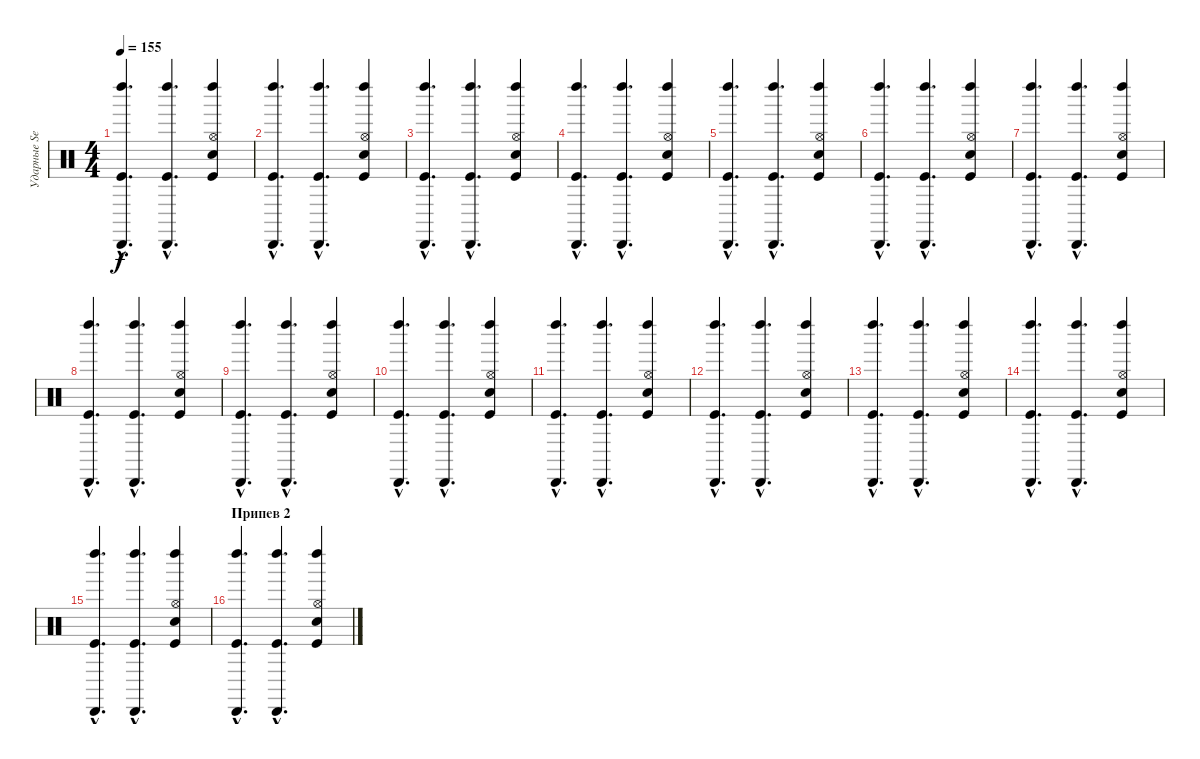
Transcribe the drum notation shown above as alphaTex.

\track ("Ударные Serge Petrone" "Ударные Se") {instrument percussion}
\staff {score}
\articulation defaults
\ts (4 4)
\tempo 155
\clef neutral
\ks c
("Cabasa (hit)"{hac} "Kick (hit)"{hac} "Left Maraca (hit)"{hac}).4{d dy f} ("Cabasa (hit)"{hac} "Kick (hit)"{hac} "Left Maraca (hit)"{hac}).4{d} ("Hi-Hat (open)" "Hand Clap (hit)" "Kick (hit)" "Left Maraca (hit)").4 |
("Cabasa (hit)"{hac} "Kick (hit)"{hac} "Left Maraca (hit)"{hac}).4{d} ("Cabasa (hit)"{hac} "Kick (hit)"{hac} "Left Maraca (hit)"{hac}).4{d} ("Hi-Hat (open)" "Hand Clap (hit)" "Kick (hit)" "Left Maraca (hit)").4 |
("Cabasa (hit)"{hac} "Kick (hit)"{hac} "Left Maraca (hit)"{hac}).4{d} ("Cabasa (hit)"{hac} "Kick (hit)"{hac} "Left Maraca (hit)"{hac}).4{d} ("Hi-Hat (open)" "Hand Clap (hit)" "Kick (hit)" "Left Maraca (hit)").4 |
("Cabasa (hit)"{hac} "Kick (hit)"{hac} "Left Maraca (hit)"{hac}).4{d} ("Cabasa (hit)"{hac} "Kick (hit)"{hac} "Left Maraca (hit)"{hac}).4{d} ("Hi-Hat (open)" "Hand Clap (hit)" "Kick (hit)" "Left Maraca (hit)").4 |
("Cabasa (hit)"{hac} "Kick (hit)"{hac} "Left Maraca (hit)"{hac}).4{d} ("Cabasa (hit)"{hac} "Kick (hit)"{hac} "Left Maraca (hit)"{hac}).4{d} ("Hi-Hat (open)" "Hand Clap (hit)" "Kick (hit)" "Left Maraca (hit)").4 |
("Cabasa (hit)"{hac} "Kick (hit)"{hac} "Left Maraca (hit)"{hac}).4{d} ("Cabasa (hit)"{hac} "Kick (hit)"{hac} "Left Maraca (hit)"{hac}).4{d} ("Hi-Hat (open)" "Hand Clap (hit)" "Kick (hit)" "Left Maraca (hit)").4 |
("Cabasa (hit)"{hac} "Kick (hit)"{hac} "Left Maraca (hit)"{hac}).4{d} ("Cabasa (hit)"{hac} "Kick (hit)"{hac} "Left Maraca (hit)"{hac}).4{d} ("Hi-Hat (open)" "Hand Clap (hit)" "Kick (hit)" "Left Maraca (hit)").4 |
("Cabasa (hit)"{hac} "Kick (hit)"{hac} "Left Maraca (hit)"{hac}).4{d} ("Cabasa (hit)"{hac} "Kick (hit)"{hac} "Left Maraca (hit)"{hac}).4{d} ("Hi-Hat (open)" "Hand Clap (hit)" "Kick (hit)" "Left Maraca (hit)").4 |
("Cabasa (hit)"{hac} "Kick (hit)"{hac} "Left Maraca (hit)"{hac}).4{d} ("Cabasa (hit)"{hac} "Kick (hit)"{hac} "Left Maraca (hit)"{hac}).4{d} ("Hi-Hat (open)" "Hand Clap (hit)" "Kick (hit)" "Left Maraca (hit)").4 |
("Cabasa (hit)"{hac} "Kick (hit)"{hac} "Left Maraca (hit)"{hac}).4{d} ("Cabasa (hit)"{hac} "Kick (hit)"{hac} "Left Maraca (hit)"{hac}).4{d} ("Hi-Hat (open)" "Hand Clap (hit)" "Kick (hit)" "Left Maraca (hit)").4 |
("Cabasa (hit)"{hac} "Kick (hit)"{hac} "Left Maraca (hit)"{hac}).4{d} ("Cabasa (hit)"{hac} "Kick (hit)"{hac} "Left Maraca (hit)"{hac}).4{d} ("Hi-Hat (open)" "Hand Clap (hit)" "Kick (hit)" "Left Maraca (hit)").4 |
("Cabasa (hit)"{hac} "Kick (hit)"{hac} "Left Maraca (hit)"{hac}).4{d} ("Cabasa (hit)"{hac} "Kick (hit)"{hac} "Left Maraca (hit)"{hac}).4{d} ("Hi-Hat (open)" "Hand Clap (hit)" "Kick (hit)" "Left Maraca (hit)").4 |
("Cabasa (hit)"{hac} "Kick (hit)"{hac} "Left Maraca (hit)"{hac}).4{d} ("Cabasa (hit)"{hac} "Kick (hit)"{hac} "Left Maraca (hit)"{hac}).4{d} ("Hi-Hat (open)" "Hand Clap (hit)" "Kick (hit)" "Left Maraca (hit)").4 |
("Cabasa (hit)"{hac} "Kick (hit)"{hac} "Left Maraca (hit)"{hac}).4{d} ("Cabasa (hit)"{hac} "Kick (hit)"{hac} "Left Maraca (hit)"{hac}).4{d} ("Hi-Hat (open)" "Hand Clap (hit)" "Kick (hit)" "Left Maraca (hit)").4 |
("Cabasa (hit)"{hac} "Kick (hit)"{hac} "Left Maraca (hit)"{hac}).4{d} ("Cabasa (hit)"{hac} "Kick (hit)"{hac} "Left Maraca (hit)"{hac}).4{d} ("Hi-Hat (open)" "Hand Clap (hit)" "Kick (hit)" "Left Maraca (hit)").4 |
\section ("" "Припев 2")
("Cabasa (hit)"{hac} "Kick (hit)"{hac} "Left Maraca (hit)"{hac}).4{d} ("Cabasa (hit)"{hac} "Kick (hit)"{hac} "Left Maraca (hit)"{hac}).4{d} ("Hi-Hat (open)" "Hand Clap (hit)" "Kick (hit)" "Left Maraca (hit)").4
